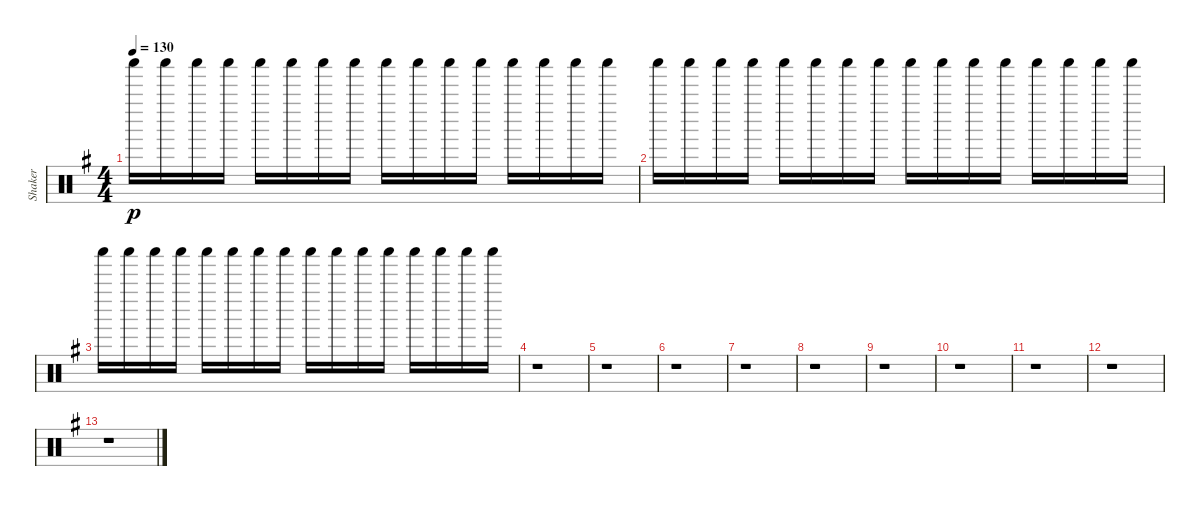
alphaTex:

\track ("Shaker" "Shaker") {instrument percussion}
\staff {score}
\articulation defaults
\ts (4 4)
\tempo 130
\clef neutral
\ks g "Shaker (hit)".16{dy p} "Shaker (hit)".16 "Shaker (hit)".16 "Shaker (hit)".16 "Shaker (hit)".16 "Shaker (hit)".16 "Shaker (hit)".16 "Shaker (hit)".16 "Shaker (hit)".16 "Shaker (hit)".16 "Shaker (hit)".16 "Shaker (hit)".16 "Shaker (hit)".16 "Shaker (hit)".16 "Shaker (hit)".16 "Shaker (hit)".16
|
"Shaker (hit)".16 "Shaker (hit)".16 "Shaker (hit)".16 "Shaker (hit)".16 "Shaker (hit)".16 "Shaker (hit)".16 "Shaker (hit)".16 "Shaker (hit)".16 "Shaker (hit)".16 "Shaker (hit)".16 "Shaker (hit)".16 "Shaker (hit)".16 "Shaker (hit)".16 "Shaker (hit)".16 "Shaker (hit)".16 "Shaker (hit)".16 |
"Shaker (hit)".16 "Shaker (hit)".16 "Shaker (hit)".16 "Shaker (hit)".16 "Shaker (hit)".16 "Shaker (hit)".16 "Shaker (hit)".16 "Shaker (hit)".16 "Shaker (hit)".16 "Shaker (hit)".16 "Shaker (hit)".16 "Shaker (hit)".16 "Shaker (hit)".16 "Shaker (hit)".16 "Shaker (hit)".16 "Shaker (hit)".16 |
r.1 |
r.1 |
r.1 |
r.1 |
r.1 |
r.1 |
r.1 |
r.1 |
r.1 |
r.1
